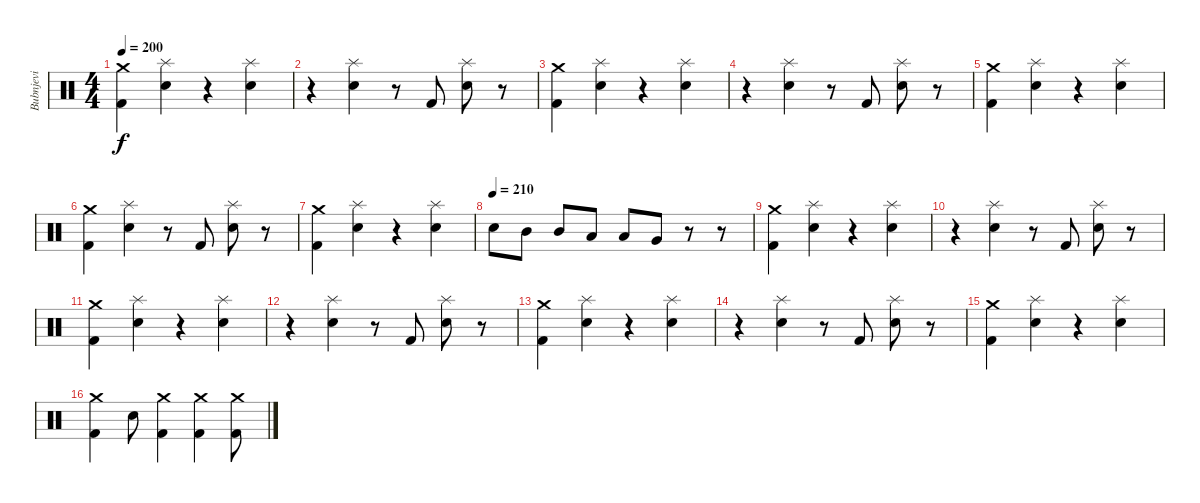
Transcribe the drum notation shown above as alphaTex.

\track ("Bubnjevi" "Bubnjevi") {instrument percussion}
\staff {score}
\articulation defaults
\ts (4 4)
\tempo 200
\clef neutral
\ks c
("Crash medium (hit)" "Kick (hit) 2").4{dy f} ("Splash (hit)" "Electric Snare (hit)").4 r.4 ("Splash (hit)" "Electric Snare (hit)").4 |
r.4 ("Splash (hit)" "Electric Snare (hit)").4 r.8 "Kick (hit) 2".8 ("Splash (hit)" "Electric Snare (hit)").8 r.8 |
("Crash medium (hit)" "Kick (hit) 2").4 ("Splash (hit)" "Electric Snare (hit)").4 r.4 ("Splash (hit)" "Electric Snare (hit)").4 |
r.4 ("Splash (hit)" "Electric Snare (hit)").4 r.8 "Kick (hit) 2".8 ("Splash (hit)" "Electric Snare (hit)").8 r.8 |
("Crash medium (hit)" "Kick (hit) 2").4 ("Splash (hit)" "Electric Snare (hit)").4 r.4 ("Splash (hit)" "Electric Snare (hit)").4 |
("Crash medium (hit)" "Kick (hit) 2").4 ("Splash (hit)" "Electric Snare (hit)").4 r.8 "Kick (hit) 2".8 ("Splash (hit)" "Electric Snare (hit)").8 r.8 |
("Crash medium (hit)" "Kick (hit) 2").4 ("Splash (hit)" "Electric Snare (hit)").4 r.4 ("Splash (hit)" "Electric Snare (hit)").4 |
\tempo (210)
"Electric Snare (hit)".8 "Mid Tom (hit)".8 "Mid Tom (hit)".8 "Low Tom (hit)".8 "Low Tom (hit)".8 "Very Low Tom (hit)".8 r.8 r.8 |
("Crash medium (hit)" "Kick (hit) 2").4 ("Splash (hit)" "Electric Snare (hit)").4 r.4 ("Splash (hit)" "Electric Snare (hit)").4 |
r.4 ("Splash (hit)" "Electric Snare (hit)").4 r.8 "Kick (hit) 2".8 ("Splash (hit)" "Electric Snare (hit)").8 r.8 |
("Crash medium (hit)" "Kick (hit) 2").4 ("Splash (hit)" "Electric Snare (hit)").4 r.4 ("Splash (hit)" "Electric Snare (hit)").4 |
r.4 ("Splash (hit)" "Electric Snare (hit)").4 r.8 "Kick (hit) 2".8 ("Splash (hit)" "Electric Snare (hit)").8 r.8 |
("Crash medium (hit)" "Kick (hit) 2").4 ("Splash (hit)" "Electric Snare (hit)").4 r.4 ("Splash (hit)" "Electric Snare (hit)").4 |
r.4 ("Splash (hit)" "Electric Snare (hit)").4 r.8 "Kick (hit) 2".8 ("Splash (hit)" "Electric Snare (hit)").8 r.8 |
("Crash medium (hit)" "Kick (hit) 2").4 ("Splash (hit)" "Electric Snare (hit)").4 r.4 ("Splash (hit)" "Electric Snare (hit)").4 |
("Crash medium (hit)" "Kick (hit) 2").4 "Electric Snare (hit)".8 ("Crash medium (hit)" "Kick (hit) 2").4 ("Crash medium (hit)" "Kick (hit) 2").4 ("Crash medium (hit)" "Kick (hit) 2").8
